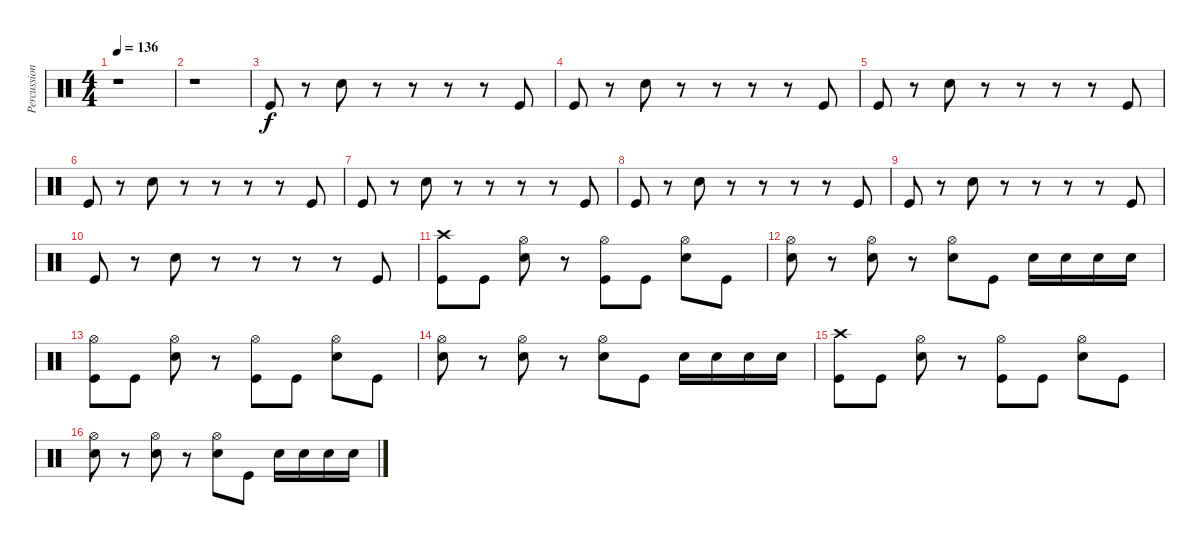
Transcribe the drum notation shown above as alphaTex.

\track ("Percussion" "Percussion") {instrument percussion}
\staff {score}
\articulation defaults
\ts (4 4)
\tempo 136
\clef neutral
\ks c
r.1{dy f} |
r.1 |
"Kick (hit)".8 r.8 "Snare (hit) 2".8 r.8 r.8 r.8 r.8 "Kick (hit)".8 |
"Kick (hit)".8 r.8 "Snare (hit) 2".8 r.8 r.8 r.8 r.8 "Kick (hit)".8 |
"Kick (hit)".8 r.8 "Snare (hit) 2".8 r.8 r.8 r.8 r.8 "Kick (hit)".8 |
"Kick (hit)".8 r.8 "Snare (hit) 2".8 r.8 r.8 r.8 r.8 "Kick (hit)".8 |
"Kick (hit)".8 r.8 "Snare (hit) 2".8 r.8 r.8 r.8 r.8 "Kick (hit)".8 |
"Kick (hit)".8 r.8 "Snare (hit) 2".8 r.8 r.8 r.8 r.8 "Kick (hit)".8 |
"Kick (hit)".8 r.8 "Snare (hit) 2".8 r.8 r.8 r.8 r.8 "Kick (hit)".8 |
"Kick (hit)".8 r.8 "Snare (hit) 2".8 r.8 r.8 r.8 r.8 "Kick (hit)".8 |
("Crash high (hit)" "Kick (hit)").8 "Kick (hit)".8 ("Hi-Hat (open)" "Snare (hit) 2").8 r.8 ("Hi-Hat (open)" "Kick (hit)").8 "Kick (hit)".8 ("Hi-Hat (open)" "Snare (hit) 2").8 "Kick (hit)".8 |
("Hi-Hat (open)" "Snare (hit) 2").8 r.8 ("Hi-Hat (open)" "Snare (hit) 2").8 r.8 ("Hi-Hat (open)" "Snare (hit) 2").8 "Kick (hit)".8 "Snare (hit) 2".16 "Snare (hit) 2".16 "Snare (hit) 2".16 "Snare (hit) 2".16 |
("Hi-Hat (open)" "Kick (hit)").8 "Kick (hit)".8 ("Hi-Hat (open)" "Snare (hit) 2").8 r.8 ("Hi-Hat (open)" "Kick (hit)").8 "Kick (hit)".8 ("Hi-Hat (open)" "Snare (hit) 2").8 "Kick (hit)".8 |
("Hi-Hat (open)" "Snare (hit) 2").8 r.8 ("Hi-Hat (open)" "Snare (hit) 2").8 r.8 ("Hi-Hat (open)" "Snare (hit) 2").8 "Kick (hit)".8 "Snare (hit) 2".16 "Snare (hit) 2".16 "Snare (hit) 2".16 "Snare (hit) 2".16 |
("Crash high (hit)" "Kick (hit)").8 "Kick (hit)".8 ("Hi-Hat (open)" "Snare (hit) 2").8 r.8 ("Hi-Hat (open)" "Kick (hit)").8 "Kick (hit)".8 ("Hi-Hat (open)" "Snare (hit) 2").8 "Kick (hit)".8 |
("Hi-Hat (open)" "Snare (hit) 2").8 r.8 ("Hi-Hat (open)" "Snare (hit) 2").8 r.8 ("Hi-Hat (open)" "Snare (hit) 2").8 "Kick (hit)".8 "Snare (hit) 2".16 "Snare (hit) 2".16 "Snare (hit) 2".16 "Snare (hit) 2".16
